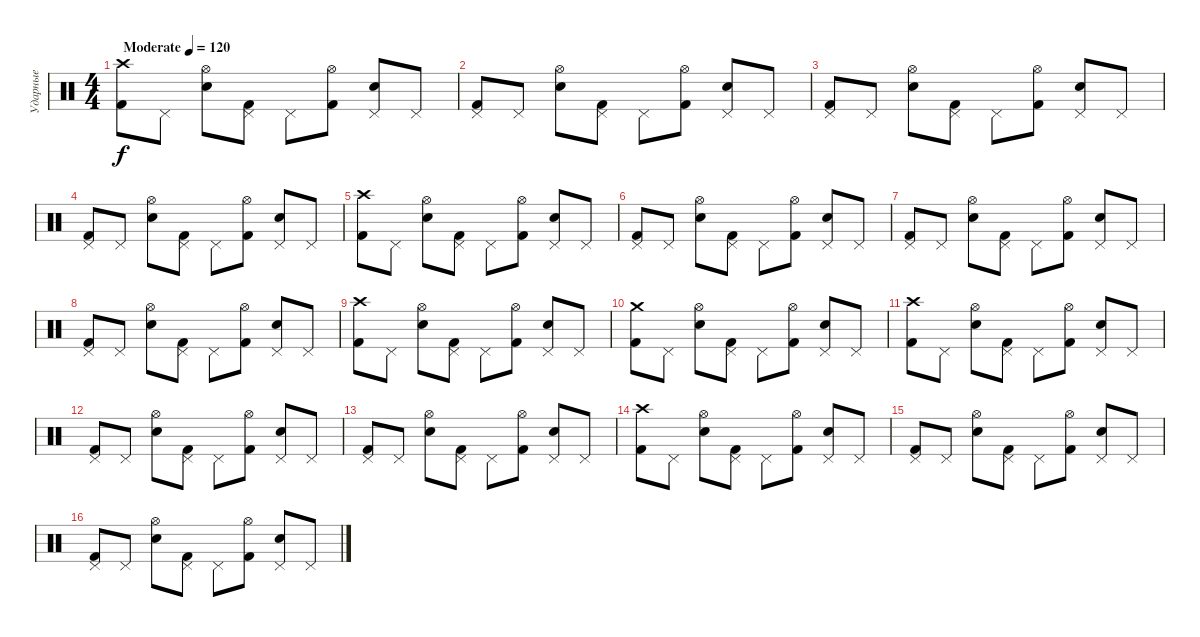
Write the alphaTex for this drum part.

\track ("Ударные" "Ударные") {instrument percussion}
\staff {score}
\articulation defaults
\ts (4 4)
\tempo (120 "Moderate")
\clef neutral
\ks c
("Crash high (hit)" "Kick (hit) 2").8{dy f} "Pedal Hi-Hat (hit)".8 ("Hi-Hat (open)" "Snare (hit) 2").8 ("Pedal Hi-Hat (hit)" "Kick (hit) 2").8 "Pedal Hi-Hat (hit)".8 ("Hi-Hat (open)" "Kick (hit) 2").8 ("Pedal Hi-Hat (hit)" "Snare (hit) 2").8 "Pedal Hi-Hat (hit)".8 |
("Pedal Hi-Hat (hit)" "Kick (hit) 2").8 "Pedal Hi-Hat (hit)".8 ("Hi-Hat (open)" "Snare (hit) 2").8 ("Pedal Hi-Hat (hit)" "Kick (hit) 2").8 "Pedal Hi-Hat (hit)".8 ("Hi-Hat (open)" "Kick (hit) 2").8 ("Pedal Hi-Hat (hit)" "Snare (hit) 2").8 "Pedal Hi-Hat (hit)".8 |
("Pedal Hi-Hat (hit)" "Kick (hit) 2").8 "Pedal Hi-Hat (hit)".8 ("Hi-Hat (open)" "Snare (hit) 2").8 ("Pedal Hi-Hat (hit)" "Kick (hit) 2").8 "Pedal Hi-Hat (hit)".8 ("Hi-Hat (open)" "Kick (hit) 2").8 ("Pedal Hi-Hat (hit)" "Snare (hit) 2").8 "Pedal Hi-Hat (hit)".8 |
("Pedal Hi-Hat (hit)" "Kick (hit) 2").8 "Pedal Hi-Hat (hit)".8 ("Hi-Hat (open)" "Snare (hit) 2").8 ("Pedal Hi-Hat (hit)" "Kick (hit) 2").8 "Pedal Hi-Hat (hit)".8 ("Hi-Hat (open)" "Kick (hit) 2").8 ("Pedal Hi-Hat (hit)" "Snare (hit) 2").8 "Pedal Hi-Hat (hit)".8 |
("Crash high (hit)" "Kick (hit) 2").8 "Pedal Hi-Hat (hit)".8 ("Hi-Hat (open)" "Snare (hit) 2").8 ("Pedal Hi-Hat (hit)" "Kick (hit) 2").8 "Pedal Hi-Hat (hit)".8 ("Hi-Hat (open)" "Kick (hit) 2").8 ("Pedal Hi-Hat (hit)" "Snare (hit) 2").8 "Pedal Hi-Hat (hit)".8 |
("Pedal Hi-Hat (hit)" "Kick (hit) 2").8 "Pedal Hi-Hat (hit)".8 ("Hi-Hat (open)" "Snare (hit) 2").8 ("Pedal Hi-Hat (hit)" "Kick (hit) 2").8 "Pedal Hi-Hat (hit)".8 ("Hi-Hat (open)" "Kick (hit) 2").8 ("Pedal Hi-Hat (hit)" "Snare (hit) 2").8 "Pedal Hi-Hat (hit)".8 |
("Pedal Hi-Hat (hit)" "Kick (hit) 2").8 "Pedal Hi-Hat (hit)".8 ("Hi-Hat (open)" "Snare (hit) 2").8 ("Pedal Hi-Hat (hit)" "Kick (hit) 2").8 "Pedal Hi-Hat (hit)".8 ("Hi-Hat (open)" "Kick (hit) 2").8 ("Pedal Hi-Hat (hit)" "Snare (hit) 2").8 "Pedal Hi-Hat (hit)".8 |
("Pedal Hi-Hat (hit)" "Kick (hit) 2").8 "Pedal Hi-Hat (hit)".8 ("Hi-Hat (open)" "Snare (hit) 2").8 ("Pedal Hi-Hat (hit)" "Kick (hit) 2").8 "Pedal Hi-Hat (hit)".8 ("Hi-Hat (open)" "Kick (hit) 2").8 ("Pedal Hi-Hat (hit)" "Snare (hit) 2").8 "Pedal Hi-Hat (hit)".8 |
("Crash high (hit)" "Kick (hit) 2").8 "Pedal Hi-Hat (hit)".8 ("Hi-Hat (open)" "Snare (hit) 2").8 ("Pedal Hi-Hat (hit)" "Kick (hit) 2").8 "Pedal Hi-Hat (hit)".8 ("Hi-Hat (open)" "Kick (hit) 2").8 ("Pedal Hi-Hat (hit)" "Snare (hit) 2").8 "Pedal Hi-Hat (hit)".8 |
("Crash medium (hit)" "Kick (hit) 2").8 "Pedal Hi-Hat (hit)".8 ("Hi-Hat (open)" "Snare (hit) 2").8 ("Pedal Hi-Hat (hit)" "Kick (hit) 2").8 "Pedal Hi-Hat (hit)".8 ("Hi-Hat (open)" "Kick (hit) 2").8 ("Pedal Hi-Hat (hit)" "Snare (hit) 2").8 "Pedal Hi-Hat (hit)".8 |
("Crash high (hit)" "Kick (hit) 2").8 "Pedal Hi-Hat (hit)".8 ("Hi-Hat (open)" "Snare (hit) 2").8 ("Pedal Hi-Hat (hit)" "Kick (hit) 2").8 "Pedal Hi-Hat (hit)".8 ("Hi-Hat (open)" "Kick (hit) 2").8 ("Pedal Hi-Hat (hit)" "Snare (hit) 2").8 "Pedal Hi-Hat (hit)".8 |
("Pedal Hi-Hat (hit)" "Kick (hit) 2").8 "Pedal Hi-Hat (hit)".8 ("Hi-Hat (open)" "Snare (hit) 2").8 ("Pedal Hi-Hat (hit)" "Kick (hit) 2").8 "Pedal Hi-Hat (hit)".8 ("Hi-Hat (open)" "Kick (hit) 2").8 ("Pedal Hi-Hat (hit)" "Snare (hit) 2").8 "Pedal Hi-Hat (hit)".8 |
("Pedal Hi-Hat (hit)" "Kick (hit) 2").8 "Pedal Hi-Hat (hit)".8 ("Hi-Hat (open)" "Snare (hit) 2").8 ("Pedal Hi-Hat (hit)" "Kick (hit) 2").8 "Pedal Hi-Hat (hit)".8 ("Hi-Hat (open)" "Kick (hit) 2").8 ("Pedal Hi-Hat (hit)" "Snare (hit) 2").8 "Pedal Hi-Hat (hit)".8 |
("Crash high (hit)" "Kick (hit) 2").8 "Pedal Hi-Hat (hit)".8 ("Hi-Hat (open)" "Snare (hit) 2").8 ("Pedal Hi-Hat (hit)" "Kick (hit) 2").8 "Pedal Hi-Hat (hit)".8 ("Hi-Hat (open)" "Kick (hit) 2").8 ("Pedal Hi-Hat (hit)" "Snare (hit) 2").8 "Pedal Hi-Hat (hit)".8 |
("Pedal Hi-Hat (hit)" "Kick (hit) 2").8 "Pedal Hi-Hat (hit)".8 ("Hi-Hat (open)" "Snare (hit) 2").8 ("Pedal Hi-Hat (hit)" "Kick (hit) 2").8 "Pedal Hi-Hat (hit)".8 ("Hi-Hat (open)" "Kick (hit) 2").8 ("Pedal Hi-Hat (hit)" "Snare (hit) 2").8 "Pedal Hi-Hat (hit)".8 |
("Pedal Hi-Hat (hit)" "Kick (hit) 2").8 "Pedal Hi-Hat (hit)".8 ("Hi-Hat (open)" "Snare (hit) 2").8 ("Pedal Hi-Hat (hit)" "Kick (hit) 2").8 "Pedal Hi-Hat (hit)".8 ("Hi-Hat (open)" "Kick (hit) 2").8 ("Pedal Hi-Hat (hit)" "Snare (hit) 2").8 "Pedal Hi-Hat (hit)".8
